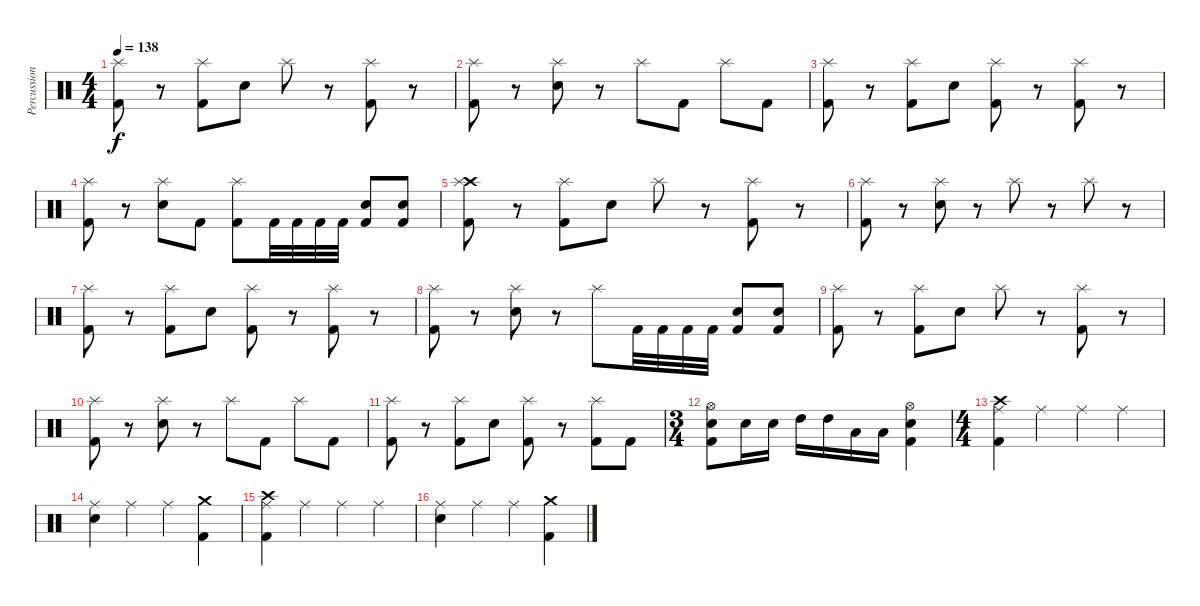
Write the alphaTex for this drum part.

\track ("Percussions" "Percussion") {instrument percussion}
\staff {score}
\articulation defaults
\ts (4 4)
\tempo 138
\clef neutral
\ks c
("Splash (hit)" "Kick (hit) 2").8{dy f} r.8 ("Splash (hit)" "Kick (hit) 2").8 "Snare (hit) 2".8 "Splash (hit)".8 r.8 ("Splash (hit)" "Kick (hit) 2").8 r.8 |
("Splash (hit)" "Kick (hit) 2").8 r.8 ("Splash (hit)" "Snare (hit) 2").8 r.8 "Splash (hit)".8 "Kick (hit) 2".8 "Splash (hit)".8 "Kick (hit) 2".8 |
("Splash (hit)" "Kick (hit) 2").8 r.8 ("Splash (hit)" "Kick (hit) 2").8 "Snare (hit) 2".8 ("Splash (hit)" "Kick (hit) 2").8 r.8 ("Splash (hit)" "Kick (hit) 2").8 r.8 |
("Splash (hit)" "Kick (hit) 2").8 r.8 ("Splash (hit)" "Snare (hit) 2").8 "Kick (hit) 2".8 ("Splash (hit)" "Kick (hit) 2").8 "Kick (hit) 2".32 "Kick (hit) 2".32 "Kick (hit) 2".32 "Kick (hit) 2".32 ("Snare (hit) 2" "Kick (hit) 2").8 ("Snare (hit) 2" "Kick (hit) 2").8 |
("Crash high (hit)" "Splash (hit)" "Kick (hit) 2").8 r.8 ("Splash (hit)" "Kick (hit) 2").8 "Snare (hit) 2".8 "Splash (hit)".8 r.8 ("Splash (hit)" "Kick (hit) 2").8 r.8 |
("Splash (hit)" "Kick (hit) 2").8 r.8 ("Splash (hit)" "Snare (hit) 2").8 r.8 "Splash (hit)".8 r.8 "Splash (hit)".8 r.8 |
("Splash (hit)" "Kick (hit) 2").8 r.8 ("Splash (hit)" "Kick (hit) 2").8 "Snare (hit) 2".8 ("Splash (hit)" "Kick (hit) 2").8 r.8 ("Splash (hit)" "Kick (hit) 2").8 r.8 |
("Splash (hit)" "Kick (hit) 2").8 r.8 ("Splash (hit)" "Snare (hit) 2").8 r.8 "Splash (hit)".8 "Kick (hit) 2".32 "Kick (hit) 2".32 "Kick (hit) 2".32 "Kick (hit) 2".32 ("Snare (hit) 2" "Kick (hit) 2").8 ("Snare (hit) 2" "Kick (hit) 2").8 |
("Splash (hit)" "Kick (hit) 2").8 r.8 ("Splash (hit)" "Kick (hit) 2").8 "Snare (hit) 2".8 "Splash (hit)".8 r.8 ("Splash (hit)" "Kick (hit) 2").8 r.8 |
("Splash (hit)" "Kick (hit) 2").8 r.8 ("Splash (hit)" "Snare (hit) 2").8 r.8 "Splash (hit)".8 "Kick (hit) 2".8 "Splash (hit)".8 "Kick (hit) 2".8 |
("Splash (hit)" "Kick (hit) 2").8 r.8 ("Splash (hit)" "Kick (hit) 2").8 "Snare (hit) 2".8 ("Splash (hit)" "Kick (hit) 2").8 r.8 ("Splash (hit)" "Kick (hit) 2").8 "Kick (hit) 2".8 |
\ts (3 4)
("Hi-Hat (open)" "Snare (hit) 2" "Kick (hit) 2").8 "Snare (hit) 2".16 "Snare (hit) 2".16 "High Tom (hit)".16 "High Tom (hit)".16 "Low Tom (hit)".16 "Low Tom (hit)".16 ("Hi-Hat (open)" "Snare (hit) 2" "Kick (hit) 2").4 |
\ts (4 4)
("Crash high (hit)" "Ride (middle)" "Kick (hit) 2").4 "Ride (middle)".4 "Ride (middle)".4 "Ride (middle)".4 |
("Ride (middle)" "Snare (hit) 2").4 "Ride (middle)".4 "Ride (middle)".4 ("Crash medium (hit)" "Kick (hit) 2").4 |
("Crash high (hit)" "Ride (middle)" "Kick (hit) 2").4 "Ride (middle)".4 "Ride (middle)".4 "Ride (middle)".4 |
("Ride (middle)" "Snare (hit) 2").4 "Ride (middle)".4 "Ride (middle)".4 ("Crash medium (hit)" "Kick (hit) 2").4
